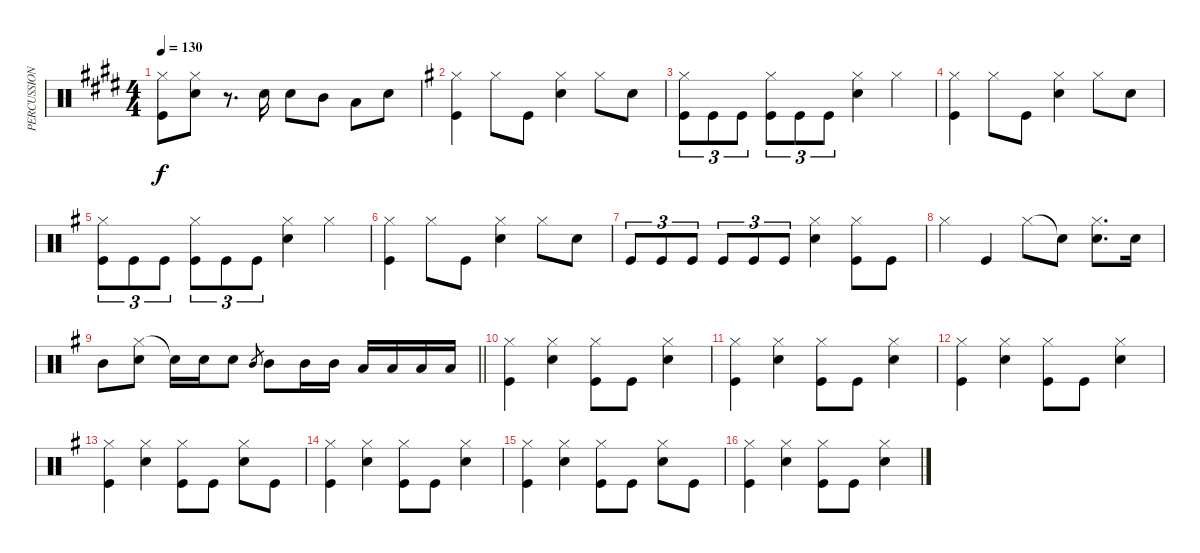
\track ("PERCUSSION" "PERCUSSION") {instrument percussion}
\staff {score}
\articulation defaults
\ts (4 4)
\tempo 130
\clef neutral
\ks e
("Hi-Hat (closed)" "Kick (hit)").8{dy f} ("Hi-Hat (closed)" "Snare (hit) 2").8 r.8{d} "Snare (hit) 2".16 "Snare (hit) 2".8 "Mid Tom (hit)".8 "Low Tom (hit)".8 "Snare (hit) 2".8 |
\ks eminor
("Hi-Hat (closed)" "Kick (hit)").4 "Hi-Hat (closed)".8 "Kick (hit)".8 ("Hi-Hat (closed)" "Snare (hit) 2").4 "Hi-Hat (closed)".8 "Snare (hit) 2".8 |
("Hi-Hat (closed)" "Kick (hit)").8{tu (3 2)} "Kick (hit)".8{tu (3 2)} "Kick (hit)".8{tu (3 2)} ("Hi-Hat (closed)" "Kick (hit)").8{tu (3 2)} "Kick (hit)".8{tu (3 2)} "Kick (hit)".8{tu (3 2)} ("Hi-Hat (closed)" "Snare (hit) 2").4 "Hi-Hat (closed)".4 |
("Hi-Hat (closed)" "Kick (hit)").4 "Hi-Hat (closed)".8 "Kick (hit)".8 ("Hi-Hat (closed)" "Snare (hit) 2").4 "Hi-Hat (closed)".8 "Snare (hit) 2".8 |
("Hi-Hat (closed)" "Kick (hit)").8{tu (3 2)} "Kick (hit)".8{tu (3 2)} "Kick (hit)".8{tu (3 2)} ("Hi-Hat (closed)" "Kick (hit)").8{tu (3 2)} "Kick (hit)".8{tu (3 2)} "Kick (hit)".8{tu (3 2)} ("Hi-Hat (closed)" "Snare (hit) 2").4 "Hi-Hat (closed)".4 |
("Hi-Hat (closed)" "Kick (hit)").4 "Hi-Hat (closed)".8 "Kick (hit)".8 ("Hi-Hat (closed)" "Snare (hit) 2").4 "Hi-Hat (closed)".8 "Snare (hit) 2".8 |
"Kick (hit)".8{tu (3 2)} "Kick (hit)".8{tu (3 2)} "Kick (hit)".8{tu (3 2)} "Kick (hit)".8{tu (3 2)} "Kick (hit)".8{tu (3 2)} "Kick (hit)".8{tu (3 2)} ("Hi-Hat (closed)" "Snare (hit) 2").4 ("Hi-Hat (closed)" "Kick (hit)").8 "Kick (hit)".8 |
"Hi-Hat (closed)".4 "Kick (hit)".4 "Hi-Hat (closed)".8 "Snare (hit)"{t}.8 ("Hi-Hat (closed)" "Snare (hit) 2").8{d} "Snare (hit) 2".16 |
\barLineRight lightlight "Mid Tom (hit)".8
("Hi-Hat (closed)" "Snare (hit) 2").8 "Snare (hit)"{t}.16 "Snare (hit) 2".16 "Snare (hit) 2".8 "Mid Tom (hit)".8{gr} "Mid Tom (hit)".8 "Mid Tom (hit)".16 "Mid Tom (hit)".16 "Low Tom (hit)".16 "Low Tom (hit)".16 "Low Tom (hit)".16 "Low Tom (hit)".16 |
("Hi-Hat (closed)" "Kick (hit)").4 ("Hi-Hat (closed)" "Snare (hit) 2").4 ("Hi-Hat (closed)" "Kick (hit)").8 "Kick (hit)".8 ("Hi-Hat (closed)" "Snare (hit) 2").4 |
("Hi-Hat (closed)" "Kick (hit)").4 ("Hi-Hat (closed)" "Snare (hit) 2").4 ("Hi-Hat (closed)" "Kick (hit)").8 "Kick (hit)".8 ("Hi-Hat (closed)" "Snare (hit) 2").4 |
("Hi-Hat (closed)" "Kick (hit)").4 ("Hi-Hat (closed)" "Snare (hit) 2").4 ("Hi-Hat (closed)" "Kick (hit)").8 "Kick (hit)".8 ("Hi-Hat (closed)" "Snare (hit) 2").4 |
("Hi-Hat (closed)" "Kick (hit)").4 ("Hi-Hat (closed)" "Snare (hit) 2").4 ("Hi-Hat (closed)" "Kick (hit)").8 "Kick (hit)".8 ("Hi-Hat (closed)" "Snare (hit) 2").8 "Kick (hit)".8 |
("Hi-Hat (closed)" "Kick (hit)").4 ("Hi-Hat (closed)" "Snare (hit) 2").4 ("Hi-Hat (closed)" "Kick (hit)").8 "Kick (hit)".8 ("Hi-Hat (closed)" "Snare (hit) 2").4 |
("Hi-Hat (closed)" "Kick (hit)").4 ("Hi-Hat (closed)" "Snare (hit) 2").4 ("Hi-Hat (closed)" "Kick (hit)").8 "Kick (hit)".8 ("Hi-Hat (closed)" "Snare (hit) 2").8 "Kick (hit)".8 |
("Hi-Hat (closed)" "Kick (hit)").4 ("Hi-Hat (closed)" "Snare (hit) 2").4 ("Hi-Hat (closed)" "Kick (hit)").8 "Kick (hit)".8 ("Hi-Hat (closed)" "Snare (hit) 2").4
